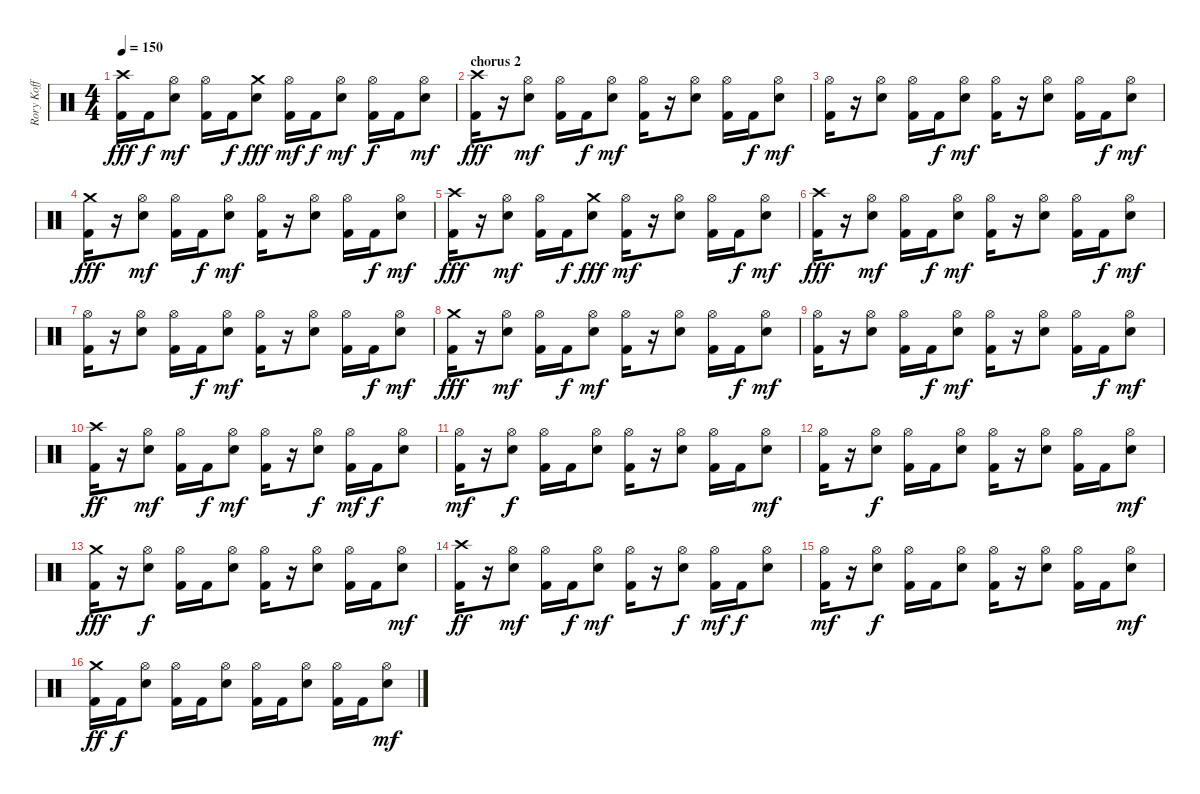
\track ("Rory Koff" "Rory Koff") {instrument percussion}
\staff {score}
\articulation defaults
\ts (4 4)
\tempo 150
\clef neutral
\ks c
("Crash high (hit)" "Kick (hit) 2").16{dy fff} "Kick (hit) 2".16{dy f} ("Hi-Hat (open)" "Electric Snare (hit)").8{dy mf} ("Hi-Hat (open)" "Kick (hit) 2").16 "Kick (hit) 2".16{dy f} ("Crash medium (hit)" "Electric Snare (hit)").8{dy fff} ("Hi-Hat (open)" "Kick (hit) 2").16{dy mf} "Kick (hit) 2".16{dy f} ("Hi-Hat (open)" "Electric Snare (hit)").8{dy mf} ("Hi-Hat (open)" "Kick (hit) 2").16{dy f} "Kick (hit) 2".16 ("Hi-Hat (open)" "Electric Snare (hit)").8{dy mf} |
\section ("" "chorus 2")
("Crash high (hit)" "Kick (hit) 2").16{dy fff} r.16 ("Hi-Hat (open)" "Electric Snare (hit)").8{dy mf} ("Hi-Hat (open)" "Kick (hit) 2").16 "Kick (hit) 2".16{dy f} ("Hi-Hat (open)" "Electric Snare (hit)").8{dy mf} ("Hi-Hat (open)" "Kick (hit) 2").16 r.16 ("Hi-Hat (open)" "Electric Snare (hit)").8 ("Hi-Hat (open)" "Kick (hit) 2").16 "Kick (hit) 2".16{dy f} ("Hi-Hat (open)" "Electric Snare (hit)").8{dy mf} |
("Hi-Hat (open)" "Kick (hit) 2").16 r.16 ("Hi-Hat (open)" "Electric Snare (hit)").8 ("Hi-Hat (open)" "Kick (hit) 2").16 "Kick (hit) 2".16{dy f} ("Hi-Hat (open)" "Electric Snare (hit)").8{dy mf} ("Hi-Hat (open)" "Kick (hit) 2").16 r.16 ("Hi-Hat (open)" "Electric Snare (hit)").8 ("Hi-Hat (open)" "Kick (hit) 2").16 "Kick (hit) 2".16{dy f} ("Hi-Hat (open)" "Electric Snare (hit)").8{dy mf} |
("Crash medium (hit)" "Kick (hit) 2").16{dy fff} r.16 ("Hi-Hat (open)" "Electric Snare (hit)").8{dy mf} ("Hi-Hat (open)" "Kick (hit) 2").16 "Kick (hit) 2".16{dy f} ("Hi-Hat (open)" "Electric Snare (hit)").8{dy mf} ("Hi-Hat (open)" "Kick (hit) 2").16 r.16 ("Hi-Hat (open)" "Electric Snare (hit)").8 ("Hi-Hat (open)" "Kick (hit) 2").16 "Kick (hit) 2".16{dy f} ("Hi-Hat (open)" "Electric Snare (hit)").8{dy mf} |
("Crash high (hit)" "Kick (hit) 2").16{dy fff} r.16 ("Hi-Hat (open)" "Electric Snare (hit)").8{dy mf} ("Hi-Hat (open)" "Kick (hit) 2").16 "Kick (hit) 2".16{dy f} ("Crash medium (hit)" "Electric Snare (hit)").8{dy fff} ("Hi-Hat (open)" "Kick (hit) 2").16{dy mf} r.16 ("Hi-Hat (open)" "Electric Snare (hit)").8 ("Hi-Hat (open)" "Kick (hit) 2").16 "Kick (hit) 2".16{dy f} ("Hi-Hat (open)" "Electric Snare (hit)").8{dy mf} |
("Crash high (hit)" "Kick (hit) 2").16{dy fff} r.16 ("Hi-Hat (open)" "Electric Snare (hit)").8{dy mf} ("Hi-Hat (open)" "Kick (hit) 2").16 "Kick (hit) 2".16{dy f} ("Hi-Hat (open)" "Electric Snare (hit)").8{dy mf} ("Hi-Hat (open)" "Kick (hit) 2").16 r.16 ("Hi-Hat (open)" "Electric Snare (hit)").8 ("Hi-Hat (open)" "Kick (hit) 2").16 "Kick (hit) 2".16{dy f} ("Hi-Hat (open)" "Electric Snare (hit)").8{dy mf} |
("Hi-Hat (open)" "Kick (hit) 2").16 r.16 ("Hi-Hat (open)" "Electric Snare (hit)").8 ("Hi-Hat (open)" "Kick (hit) 2").16 "Kick (hit) 2".16{dy f} ("Hi-Hat (open)" "Electric Snare (hit)").8{dy mf} ("Hi-Hat (open)" "Kick (hit) 2").16 r.16 ("Hi-Hat (open)" "Electric Snare (hit)").8 ("Hi-Hat (open)" "Kick (hit) 2").16 "Kick (hit) 2".16{dy f} ("Hi-Hat (open)" "Electric Snare (hit)").8{dy mf} |
("Crash medium (hit)" "Kick (hit) 2").16{dy fff} r.16 ("Hi-Hat (open)" "Electric Snare (hit)").8{dy mf} ("Hi-Hat (open)" "Kick (hit) 2").16 "Kick (hit) 2".16{dy f} ("Hi-Hat (open)" "Electric Snare (hit)").8{dy mf} ("Hi-Hat (open)" "Kick (hit) 2").16 r.16 ("Hi-Hat (open)" "Electric Snare (hit)").8 ("Hi-Hat (open)" "Kick (hit) 2").16 "Kick (hit) 2".16{dy f} ("Hi-Hat (open)" "Electric Snare (hit)").8{dy mf} |
("Hi-Hat (open)" "Kick (hit) 2").16 r.16 ("Hi-Hat (open)" "Electric Snare (hit)").8 ("Hi-Hat (open)" "Kick (hit) 2").16 "Kick (hit) 2".16{dy f} ("Hi-Hat (open)" "Electric Snare (hit)").8{dy mf} ("Hi-Hat (open)" "Kick (hit) 2").16 r.16 ("Hi-Hat (open)" "Electric Snare (hit)").8 ("Hi-Hat (open)" "Kick (hit) 2").16 "Kick (hit) 2".16{dy f} ("Hi-Hat (open)" "Electric Snare (hit)").8{dy mf} |
("Crash high (hit)" "Kick (hit) 2").16{dy ff} r.16 ("Hi-Hat (open)" "Electric Snare (hit)").8{dy mf} ("Hi-Hat (open)" "Kick (hit) 2").16 "Kick (hit) 2".16{dy f} ("Hi-Hat (open)" "Electric Snare (hit)").8{dy mf} ("Hi-Hat (open)" "Kick (hit) 2").16 r.16 ("Hi-Hat (open)" "Electric Snare (hit)").8{dy f} ("Hi-Hat (open)" "Kick (hit) 2").16{dy mf} "Kick (hit) 2".16{dy f} ("Hi-Hat (open)" "Electric Snare (hit)").8 |
("Hi-Hat (open)" "Kick (hit) 2").16{dy mf} r.16 ("Hi-Hat (open)" "Electric Snare (hit)").8{dy f} ("Hi-Hat (open)" "Kick (hit) 2").16 "Kick (hit) 2".16 ("Hi-Hat (open)" "Electric Snare (hit)").8 ("Hi-Hat (open)" "Kick (hit) 2").16 r.16 ("Hi-Hat (open)" "Electric Snare (hit)").8 ("Hi-Hat (open)" "Kick (hit) 2").16 "Kick (hit) 2".16 ("Hi-Hat (open)" "Electric Snare (hit)").8{dy mf} |
("Hi-Hat (open)" "Kick (hit) 2").16 r.16 ("Hi-Hat (open)" "Electric Snare (hit)").8{dy f} ("Hi-Hat (open)" "Kick (hit) 2").16 "Kick (hit) 2".16 ("Hi-Hat (open)" "Electric Snare (hit)").8 ("Hi-Hat (open)" "Kick (hit) 2").16 r.16 ("Hi-Hat (open)" "Electric Snare (hit)").8 ("Hi-Hat (open)" "Kick (hit) 2").16 "Kick (hit) 2".16 ("Hi-Hat (open)" "Electric Snare (hit)").8{dy mf} |
("Crash medium (hit)" "Kick (hit) 2").16{dy fff} r.16 ("Hi-Hat (open)" "Electric Snare (hit)").8{dy f} ("Hi-Hat (open)" "Kick (hit) 2").16 "Kick (hit) 2".16 ("Hi-Hat (open)" "Electric Snare (hit)").8 ("Hi-Hat (open)" "Kick (hit) 2").16 r.16 ("Hi-Hat (open)" "Electric Snare (hit)").8 ("Hi-Hat (open)" "Kick (hit) 2").16 "Kick (hit) 2".16 ("Hi-Hat (open)" "Electric Snare (hit)").8{dy mf} |
("Crash high (hit)" "Kick (hit) 2").16{dy ff} r.16 ("Hi-Hat (open)" "Electric Snare (hit)").8{dy mf} ("Hi-Hat (open)" "Kick (hit) 2").16 "Kick (hit) 2".16{dy f} ("Hi-Hat (open)" "Electric Snare (hit)").8{dy mf} ("Hi-Hat (open)" "Kick (hit) 2").16 r.16 ("Hi-Hat (open)" "Electric Snare (hit)").8{dy f} ("Hi-Hat (open)" "Kick (hit) 2").16{dy mf} "Kick (hit) 2".16{dy f} ("Hi-Hat (open)" "Electric Snare (hit)").8 |
("Hi-Hat (open)" "Kick (hit) 2").16{dy mf} r.16 ("Hi-Hat (open)" "Electric Snare (hit)").8{dy f} ("Hi-Hat (open)" "Kick (hit) 2").16 "Kick (hit) 2".16 ("Hi-Hat (open)" "Electric Snare (hit)").8 ("Hi-Hat (open)" "Kick (hit) 2").16 r.16 ("Hi-Hat (open)" "Electric Snare (hit)").8 ("Hi-Hat (open)" "Kick (hit) 2").16 "Kick (hit) 2".16 ("Hi-Hat (open)" "Electric Snare (hit)").8{dy mf} |
("Crash medium (hit)" "Kick (hit) 2").16{dy ff} "Kick (hit) 2".16{dy f} ("Hi-Hat (open)" "Electric Snare (hit)").8 ("Hi-Hat (open)" "Kick (hit) 2").16 "Kick (hit) 2".16 ("Hi-Hat (open)" "Electric Snare (hit)").8 ("Hi-Hat (open)" "Kick (hit) 2").16 "Kick (hit) 2".16 ("Hi-Hat (open)" "Electric Snare (hit)").8 ("Hi-Hat (open)" "Kick (hit) 2").16 "Kick (hit) 2".16 ("Hi-Hat (open)" "Electric Snare (hit)").8{dy mf}
